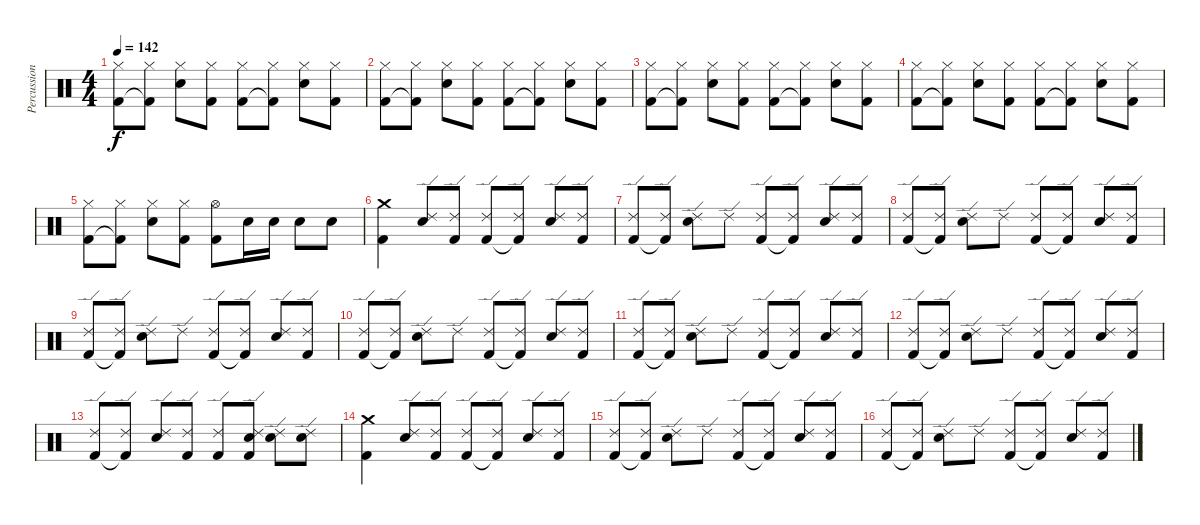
\track ("Percussion" "Percussion") {instrument percussion}
\staff {score}
\articulation defaults
\ts (4 4)
\tempo 142
\clef neutral
\ks c
("Hi-Hat (closed)" "Kick (hit) 2").8{dy f} ("Hi-Hat (closed)" "Kick (hit) 2"{t}).8 ("Hi-Hat (closed)" "Snare (hit) 2").8 ("Hi-Hat (closed)" "Kick (hit) 2").8 ("Hi-Hat (closed)" "Kick (hit) 2").8 ("Hi-Hat (closed)" "Kick (hit) 2"{t}).8 ("Hi-Hat (closed)" "Snare (hit) 2").8 ("Hi-Hat (closed)" "Kick (hit) 2").8 |
("Hi-Hat (closed)" "Kick (hit) 2").8 ("Hi-Hat (closed)" "Kick (hit) 2"{t}).8 ("Hi-Hat (closed)" "Snare (hit) 2").8 ("Hi-Hat (closed)" "Kick (hit) 2").8 ("Hi-Hat (closed)" "Kick (hit) 2").8 ("Hi-Hat (closed)" "Kick (hit) 2"{t}).8 ("Hi-Hat (closed)" "Snare (hit) 2").8 ("Hi-Hat (closed)" "Kick (hit) 2").8 |
("Hi-Hat (closed)" "Kick (hit) 2").8 ("Hi-Hat (closed)" "Kick (hit) 2"{t}).8 ("Hi-Hat (closed)" "Snare (hit) 2").8 ("Hi-Hat (closed)" "Kick (hit) 2").8 ("Hi-Hat (closed)" "Kick (hit) 2").8 ("Hi-Hat (closed)" "Kick (hit) 2"{t}).8 ("Hi-Hat (closed)" "Snare (hit) 2").8 ("Hi-Hat (closed)" "Kick (hit) 2").8 |
("Hi-Hat (closed)" "Kick (hit) 2").8 ("Hi-Hat (closed)" "Kick (hit) 2"{t}).8 ("Hi-Hat (closed)" "Snare (hit) 2").8 ("Hi-Hat (closed)" "Kick (hit) 2").8 ("Hi-Hat (closed)" "Kick (hit) 2").8 ("Hi-Hat (closed)" "Kick (hit) 2"{t}).8 ("Hi-Hat (closed)" "Snare (hit) 2").8 ("Hi-Hat (closed)" "Kick (hit) 2").8 |
("Hi-Hat (closed)" "Kick (hit) 2").8 ("Hi-Hat (closed)" "Kick (hit) 2"{t}).8 ("Hi-Hat (closed)" "Snare (hit) 2").8 ("Hi-Hat (closed)" "Kick (hit) 2").8 ("Hi-Hat (open)" "Kick (hit) 2").8 "Snare (hit) 2".16 "Snare (hit) 2".16 "Snare (hit) 2".8 "Snare (hit) 2".8 |
("Crash medium (hit)" "Kick (hit) 2").4 ("Ride (edge) 2" "Snare (hit) 2").8 ("Ride (edge) 2" "Kick (hit) 2").8 ("Ride (edge) 2" "Kick (hit) 2").8 ("Ride (edge) 2" "Kick (hit) 2"{t}).8 ("Ride (edge) 2" "Snare (hit) 2").8 ("Ride (edge) 2" "Kick (hit) 2").8 |
("Ride (edge) 2" "Kick (hit) 2").8 ("Ride (edge) 2" "Kick (hit) 2"{t}).8 ("Ride (edge) 2" "Snare (hit) 2").8 "Ride (edge) 2".8 ("Ride (edge) 2" "Kick (hit) 2").8 ("Ride (edge) 2" "Kick (hit) 2"{t}).8 ("Ride (edge) 2" "Snare (hit) 2").8 ("Ride (edge) 2" "Kick (hit) 2").8 |
("Ride (edge) 2" "Kick (hit) 2").8 ("Ride (edge) 2" "Kick (hit) 2"{t}).8 ("Ride (edge) 2" "Snare (hit) 2").8 "Ride (edge) 2".8 ("Ride (edge) 2" "Kick (hit) 2").8 ("Ride (edge) 2" "Kick (hit) 2"{t}).8 ("Ride (edge) 2" "Snare (hit) 2").8 ("Ride (edge) 2" "Kick (hit) 2").8 |
("Ride (edge) 2" "Kick (hit) 2").8 ("Ride (edge) 2" "Kick (hit) 2"{t}).8 ("Ride (edge) 2" "Snare (hit) 2").8 "Ride (edge) 2".8 ("Ride (edge) 2" "Kick (hit) 2").8 ("Ride (edge) 2" "Kick (hit) 2"{t}).8 ("Ride (edge) 2" "Snare (hit) 2").8 ("Ride (edge) 2" "Kick (hit) 2").8 |
("Ride (edge) 2" "Kick (hit) 2").8 ("Ride (edge) 2" "Kick (hit) 2"{t}).8 ("Ride (edge) 2" "Snare (hit) 2").8 "Ride (edge) 2".8 ("Ride (edge) 2" "Kick (hit) 2").8 ("Ride (edge) 2" "Kick (hit) 2"{t}).8 ("Ride (edge) 2" "Snare (hit) 2").8 ("Ride (edge) 2" "Kick (hit) 2").8 |
("Ride (edge) 2" "Kick (hit) 2").8 ("Ride (edge) 2" "Kick (hit) 2"{t}).8 ("Ride (edge) 2" "Snare (hit) 2").8 "Ride (edge) 2".8 ("Ride (edge) 2" "Kick (hit) 2").8 ("Ride (edge) 2" "Kick (hit) 2"{t}).8 ("Ride (edge) 2" "Snare (hit) 2").8 ("Ride (edge) 2" "Kick (hit) 2").8 |
("Ride (edge) 2" "Kick (hit) 2").8 ("Ride (edge) 2" "Kick (hit) 2"{t}).8 ("Ride (edge) 2" "Snare (hit) 2").8 "Ride (edge) 2".8 ("Ride (edge) 2" "Kick (hit) 2").8 ("Ride (edge) 2" "Kick (hit) 2"{t}).8 ("Ride (edge) 2" "Snare (hit) 2").8 ("Ride (edge) 2" "Kick (hit) 2").8 |
("Ride (edge) 2" "Kick (hit) 2").8 ("Ride (edge) 2" "Kick (hit) 2"{t}).8 ("Ride (edge) 2" "Snare (hit) 2").8 ("Ride (edge) 2" "Kick (hit) 2").8 ("Ride (edge) 2" "Kick (hit) 2").8 ("Ride (edge) 2" "Snare (hit) 2" "Kick (hit) 2").8 ("Ride (edge) 2" "Snare (hit) 2").8 ("Ride (edge) 2" "Snare (hit) 2").8 |
("Crash medium (hit)" "Kick (hit) 2").4 ("Ride (edge) 2" "Snare (hit) 2").8 ("Ride (edge) 2" "Kick (hit) 2").8 ("Ride (edge) 2" "Kick (hit) 2").8 ("Ride (edge) 2" "Kick (hit) 2"{t}).8 ("Ride (edge) 2" "Snare (hit) 2").8 ("Ride (edge) 2" "Kick (hit) 2").8 |
("Ride (edge) 2" "Kick (hit) 2").8 ("Ride (edge) 2" "Kick (hit) 2"{t}).8 ("Ride (edge) 2" "Snare (hit) 2").8 "Ride (edge) 2".8 ("Ride (edge) 2" "Kick (hit) 2").8 ("Ride (edge) 2" "Kick (hit) 2"{t}).8 ("Ride (edge) 2" "Snare (hit) 2").8 ("Ride (edge) 2" "Kick (hit) 2").8 |
("Ride (edge) 2" "Kick (hit) 2").8 ("Ride (edge) 2" "Kick (hit) 2"{t}).8 ("Ride (edge) 2" "Snare (hit) 2").8 "Ride (edge) 2".8 ("Ride (edge) 2" "Kick (hit) 2").8 ("Ride (edge) 2" "Kick (hit) 2"{t}).8 ("Ride (edge) 2" "Snare (hit) 2").8 ("Ride (edge) 2" "Kick (hit) 2").8
